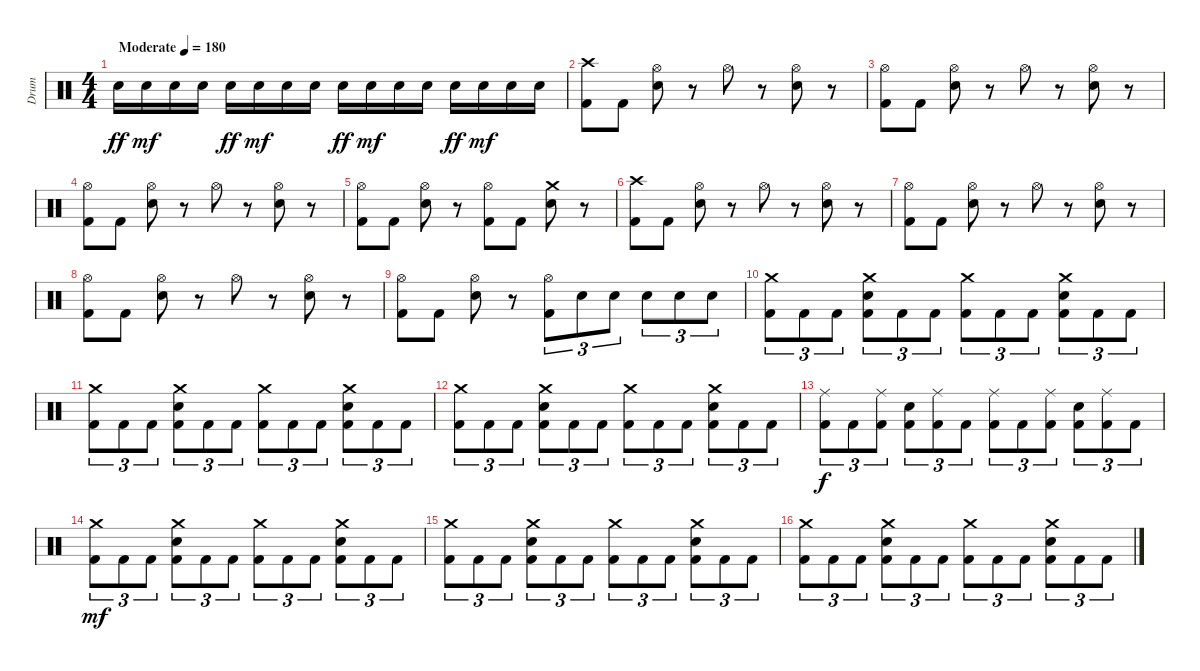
\track ("Drum" "Drum") {instrument percussion}
\staff {score}
\articulation defaults
\ts (4 4)
\tempo (180 "Moderate")
\clef neutral
\ks c "Snare (hit) 2".16{dy ff} "Snare (hit) 2".16{dy mf} "Snare (hit) 2".16 "Snare (hit) 2".16 "Snare (hit) 2".16{dy ff} "Snare (hit) 2".16{dy mf} "Snare (hit) 2".16 "Snare (hit) 2".16 "Snare (hit) 2".16{dy ff} "Snare (hit) 2".16{dy mf} "Snare (hit) 2".16 "Snare (hit) 2".16 "Snare (hit) 2".16{dy ff} "Snare (hit) 2".16{dy mf} "Snare (hit) 2".16 "Snare (hit) 2".16
|
("Crash high (hit)" "Kick (hit) 2").8 "Kick (hit) 2".8 ("Hi-Hat (open)" "Snare (hit) 2").8 r.8 "Hi-Hat (open)".8 r.8 ("Hi-Hat (open)" "Snare (hit) 2").8 r.8 |
("Hi-Hat (open)" "Kick (hit) 2").8 "Kick (hit) 2".8 ("Hi-Hat (open)" "Snare (hit) 2").8 r.8 "Hi-Hat (open)".8 r.8 ("Hi-Hat (open)" "Snare (hit) 2").8 r.8 |
("Hi-Hat (open)" "Kick (hit) 2").8 "Kick (hit) 2".8 ("Hi-Hat (open)" "Snare (hit) 2").8 r.8 "Hi-Hat (open)".8 r.8 ("Hi-Hat (open)" "Snare (hit) 2").8 r.8 |
("Hi-Hat (open)" "Kick (hit) 2").8 "Kick (hit) 2".8 ("Hi-Hat (open)" "Snare (hit) 2").8 r.8 ("Hi-Hat (open)" "Kick (hit) 2").8 "Kick (hit) 2".8 ("Crash medium (hit)" "Snare (hit) 2").8 r.8 |
("Crash high (hit)" "Kick (hit) 2").8 "Kick (hit) 2".8 ("Hi-Hat (open)" "Snare (hit) 2").8 r.8 "Hi-Hat (open)".8 r.8 ("Hi-Hat (open)" "Snare (hit) 2").8 r.8 |
("Hi-Hat (open)" "Kick (hit) 2").8 "Kick (hit) 2".8 ("Hi-Hat (open)" "Snare (hit) 2").8 r.8 "Hi-Hat (open)".8 r.8 ("Hi-Hat (open)" "Snare (hit) 2").8 r.8 |
("Hi-Hat (open)" "Kick (hit) 2").8 "Kick (hit) 2".8 ("Hi-Hat (open)" "Snare (hit) 2").8 r.8 "Hi-Hat (open)".8 r.8 ("Hi-Hat (open)" "Snare (hit) 2").8 r.8 |
("Hi-Hat (open)" "Kick (hit) 2").8 "Kick (hit) 2".8 ("Hi-Hat (open)" "Snare (hit) 2").8 r.8 ("Hi-Hat (open)" "Kick (hit) 2").8{tu (3 2)} "Snare (hit) 2".8{tu (3 2)} "Snare (hit) 2".8{tu (3 2)} "Snare (hit) 2".8{tu (3 2)} "Snare (hit) 2".8{tu (3 2)} "Snare (hit) 2".8{tu (3 2)} |
("Crash medium (hit)" "Kick (hit) 2").8{tu (3 2)} "Kick (hit) 2".8{tu (3 2)} "Kick (hit) 2".8{tu (3 2)} ("Crash medium (hit)" "Snare (hit) 2" "Kick (hit) 2").8{tu (3 2)} "Kick (hit) 2".8{tu (3 2)} "Kick (hit) 2".8{tu (3 2)} ("Crash medium (hit)" "Kick (hit) 2").8{tu (3 2)} "Kick (hit) 2".8{tu (3 2)} "Kick (hit) 2".8{tu (3 2)} ("Crash medium (hit)" "Snare (hit) 2" "Kick (hit) 2").8{tu (3 2)} "Kick (hit) 2".8{tu (3 2)} "Kick (hit) 2".8{tu (3 2)} |
("Crash medium (hit)" "Kick (hit) 2").8{tu (3 2)} "Kick (hit) 2".8{tu (3 2)} "Kick (hit) 2".8{tu (3 2)} ("Crash medium (hit)" "Snare (hit) 2" "Kick (hit) 2").8{tu (3 2)} "Kick (hit) 2".8{tu (3 2)} "Kick (hit) 2".8{tu (3 2)} ("Crash medium (hit)" "Kick (hit) 2").8{tu (3 2)} "Kick (hit) 2".8{tu (3 2)} "Kick (hit) 2".8{tu (3 2)} ("Crash medium (hit)" "Snare (hit) 2" "Kick (hit) 2").8{tu (3 2)} "Kick (hit) 2".8{tu (3 2)} "Kick (hit) 2".8{tu (3 2)} |
("Crash medium (hit)" "Kick (hit) 2").8{tu (3 2)} "Kick (hit) 2".8{tu (3 2)} "Kick (hit) 2".8{tu (3 2)} ("Crash medium (hit)" "Snare (hit) 2" "Kick (hit) 2").8{tu (3 2)} "Kick (hit) 2".8{tu (3 2)} "Kick (hit) 2".8{tu (3 2)} ("Crash medium (hit)" "Kick (hit) 2").8{tu (3 2)} "Kick (hit) 2".8{tu (3 2)} "Kick (hit) 2".8{tu (3 2)} ("Crash medium (hit)" "Snare (hit) 2" "Kick (hit) 2").8{tu (3 2)} "Kick (hit) 2".8{tu (3 2)} "Kick (hit) 2".8{tu (3 2)} |
("Ride (middle)" "Kick (hit) 2").8{tu (3 2) dy f} "Kick (hit) 2".8{tu (3 2)} ("Ride (middle)" "Kick (hit) 2").8{tu (3 2)} ("Snare (hit) 2" "Kick (hit) 2").8{tu (3 2)} ("Ride (middle)" "Kick (hit) 2").8{tu (3 2)} "Kick (hit) 2".8{tu (3 2)} ("Ride (middle)" "Kick (hit) 2").8{tu (3 2)} "Kick (hit) 2".8{tu (3 2)} ("Ride (middle)" "Kick (hit) 2").8{tu (3 2)} ("Snare (hit) 2" "Kick (hit) 2").8{tu (3 2)} ("Ride (middle)" "Kick (hit) 2").8{tu (3 2)} "Kick (hit) 2".8{tu (3 2)} |
("Crash medium (hit)" "Kick (hit) 2").8{tu (3 2) dy mf} "Kick (hit) 2".8{tu (3 2)} "Kick (hit) 2".8{tu (3 2)} ("Crash medium (hit)" "Snare (hit) 2" "Kick (hit) 2").8{tu (3 2)} "Kick (hit) 2".8{tu (3 2)} "Kick (hit) 2".8{tu (3 2)} ("Crash medium (hit)" "Kick (hit) 2").8{tu (3 2)} "Kick (hit) 2".8{tu (3 2)} "Kick (hit) 2".8{tu (3 2)} ("Crash medium (hit)" "Snare (hit) 2" "Kick (hit) 2").8{tu (3 2)} "Kick (hit) 2".8{tu (3 2)} "Kick (hit) 2".8{tu (3 2)} |
("Crash medium (hit)" "Kick (hit) 2").8{tu (3 2)} "Kick (hit) 2".8{tu (3 2)} "Kick (hit) 2".8{tu (3 2)} ("Crash medium (hit)" "Snare (hit) 2" "Kick (hit) 2").8{tu (3 2)} "Kick (hit) 2".8{tu (3 2)} "Kick (hit) 2".8{tu (3 2)} ("Crash medium (hit)" "Kick (hit) 2").8{tu (3 2)} "Kick (hit) 2".8{tu (3 2)} "Kick (hit) 2".8{tu (3 2)} ("Crash medium (hit)" "Snare (hit) 2" "Kick (hit) 2").8{tu (3 2)} "Kick (hit) 2".8{tu (3 2)} "Kick (hit) 2".8{tu (3 2)} |
("Crash medium (hit)" "Kick (hit) 2").8{tu (3 2)} "Kick (hit) 2".8{tu (3 2)} "Kick (hit) 2".8{tu (3 2)} ("Crash medium (hit)" "Snare (hit) 2" "Kick (hit) 2").8{tu (3 2)} "Kick (hit) 2".8{tu (3 2)} "Kick (hit) 2".8{tu (3 2)} ("Crash medium (hit)" "Kick (hit) 2").8{tu (3 2)} "Kick (hit) 2".8{tu (3 2)} "Kick (hit) 2".8{tu (3 2)} ("Crash medium (hit)" "Snare (hit) 2" "Kick (hit) 2").8{tu (3 2)} "Kick (hit) 2".8{tu (3 2)} "Kick (hit) 2".8{tu (3 2)}
